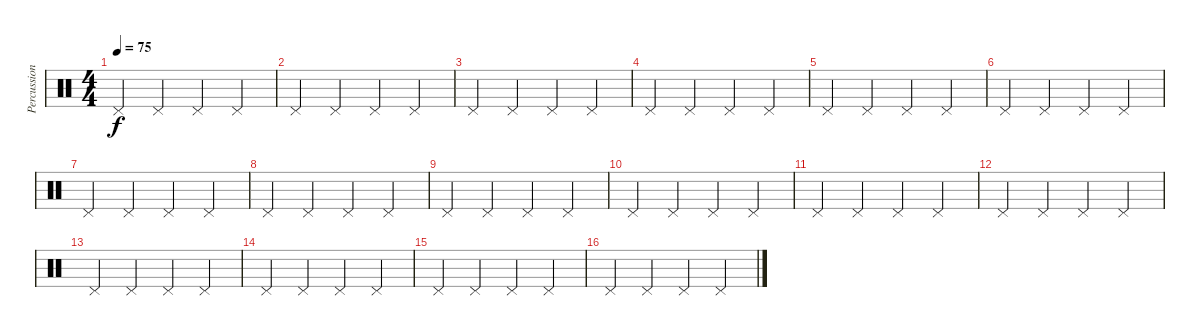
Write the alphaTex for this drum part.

\track ("Percussion" "Percussion") {instrument percussion}
\staff {score}
\articulation defaults
\ts (4 4)
\tempo 75
\clef neutral
\ks c "Pedal Hi-Hat (hit)".4{dy f} "Pedal Hi-Hat (hit)".4 "Pedal Hi-Hat (hit)".4 "Pedal Hi-Hat (hit)".4
|
"Pedal Hi-Hat (hit)".4 "Pedal Hi-Hat (hit)".4 "Pedal Hi-Hat (hit)".4 "Pedal Hi-Hat (hit)".4 |
"Pedal Hi-Hat (hit)".4 "Pedal Hi-Hat (hit)".4 "Pedal Hi-Hat (hit)".4 "Pedal Hi-Hat (hit)".4 |
"Pedal Hi-Hat (hit)".4 "Pedal Hi-Hat (hit)".4 "Pedal Hi-Hat (hit)".4 "Pedal Hi-Hat (hit)".4 |
"Pedal Hi-Hat (hit)".4 "Pedal Hi-Hat (hit)".4 "Pedal Hi-Hat (hit)".4 "Pedal Hi-Hat (hit)".4 |
"Pedal Hi-Hat (hit)".4 "Pedal Hi-Hat (hit)".4 "Pedal Hi-Hat (hit)".4 "Pedal Hi-Hat (hit)".4 |
"Pedal Hi-Hat (hit)".4 "Pedal Hi-Hat (hit)".4 "Pedal Hi-Hat (hit)".4 "Pedal Hi-Hat (hit)".4 |
"Pedal Hi-Hat (hit)".4 "Pedal Hi-Hat (hit)".4 "Pedal Hi-Hat (hit)".4 "Pedal Hi-Hat (hit)".4 |
"Pedal Hi-Hat (hit)".4 "Pedal Hi-Hat (hit)".4 "Pedal Hi-Hat (hit)".4 "Pedal Hi-Hat (hit)".4 |
"Pedal Hi-Hat (hit)".4 "Pedal Hi-Hat (hit)".4 "Pedal Hi-Hat (hit)".4 "Pedal Hi-Hat (hit)".4 |
"Pedal Hi-Hat (hit)".4 "Pedal Hi-Hat (hit)".4 "Pedal Hi-Hat (hit)".4 "Pedal Hi-Hat (hit)".4 |
"Pedal Hi-Hat (hit)".4 "Pedal Hi-Hat (hit)".4 "Pedal Hi-Hat (hit)".4 "Pedal Hi-Hat (hit)".4 |
"Pedal Hi-Hat (hit)".4 "Pedal Hi-Hat (hit)".4 "Pedal Hi-Hat (hit)".4 "Pedal Hi-Hat (hit)".4 |
"Pedal Hi-Hat (hit)".4 "Pedal Hi-Hat (hit)".4 "Pedal Hi-Hat (hit)".4 "Pedal Hi-Hat (hit)".4 |
"Pedal Hi-Hat (hit)".4 "Pedal Hi-Hat (hit)".4 "Pedal Hi-Hat (hit)".4 "Pedal Hi-Hat (hit)".4 |
"Pedal Hi-Hat (hit)".4 "Pedal Hi-Hat (hit)".4 "Pedal Hi-Hat (hit)".4 "Pedal Hi-Hat (hit)".4
